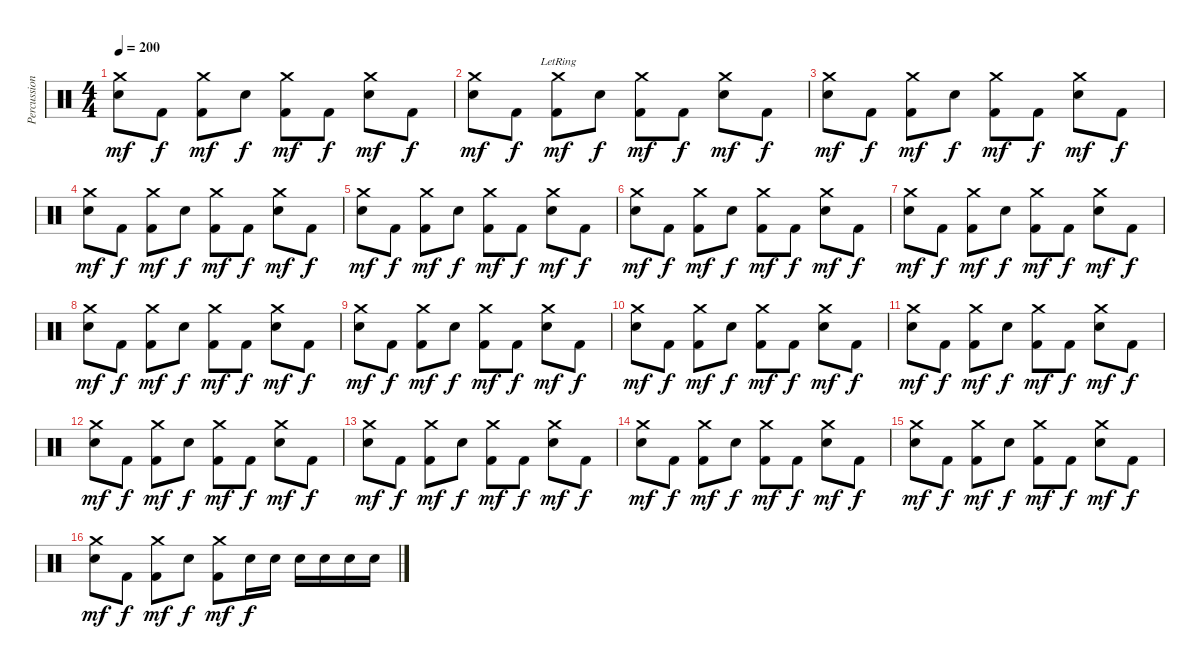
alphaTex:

\track ("Percussions" "Percussion") {instrument percussion}
\staff {score}
\articulation defaults
\ts (4 4)
\tempo 200
\clef neutral
\ks c
("Crash medium (hit)" "Snare (hit) 2").8{dy mf} "Kick (hit) 2".8{dy f} ("Crash medium (hit)" "Kick (hit) 2").8{dy mf} "Snare (hit) 2".8{dy f} ("Crash medium (hit)" "Kick (hit) 2").8{dy mf} "Kick (hit) 2".8{dy f} ("Crash medium (hit)" "Snare (hit) 2").8{dy mf} "Kick (hit) 2".8{dy f} |
("Crash medium (hit)" "Snare (hit) 2").8{dy mf} "Kick (hit) 2".8{dy f} ("Crash medium (hit)"{lr} "Kick (hit) 2").8{dy mf} "Snare (hit) 2".8{dy f} ("Crash medium (hit)" "Kick (hit) 2").8{dy mf} "Kick (hit) 2".8{dy f} ("Crash medium (hit)" "Snare (hit) 2").8{dy mf} "Kick (hit) 2".8{dy f} |
("Crash medium (hit)" "Snare (hit) 2").8{dy mf} "Kick (hit) 2".8{dy f} ("Crash medium (hit)" "Kick (hit) 2").8{dy mf} "Snare (hit) 2".8{dy f} ("Crash medium (hit)" "Kick (hit) 2").8{dy mf} "Kick (hit) 2".8{dy f} ("Crash medium (hit)" "Snare (hit) 2").8{dy mf} "Kick (hit) 2".8{dy f} |
("Crash medium (hit)" "Snare (hit) 2").8{dy mf} "Kick (hit) 2".8{dy f} ("Crash medium (hit)" "Kick (hit) 2").8{dy mf} "Snare (hit) 2".8{dy f} ("Crash medium (hit)" "Kick (hit) 2").8{dy mf} "Kick (hit) 2".8{dy f} ("Crash medium (hit)" "Snare (hit) 2").8{dy mf} "Kick (hit) 2".8{dy f} |
("Crash medium (hit)" "Snare (hit) 2").8{dy mf} "Kick (hit) 2".8{dy f} ("Crash medium (hit)" "Kick (hit) 2").8{dy mf} "Snare (hit) 2".8{dy f} ("Crash medium (hit)" "Kick (hit) 2").8{dy mf} "Kick (hit) 2".8{dy f} ("Crash medium (hit)" "Snare (hit) 2").8{dy mf} "Kick (hit) 2".8{dy f} |
("Crash medium (hit)" "Snare (hit) 2").8{dy mf} "Kick (hit) 2".8{dy f} ("Crash medium (hit)" "Kick (hit) 2").8{dy mf} "Snare (hit) 2".8{dy f} ("Crash medium (hit)" "Kick (hit) 2").8{dy mf} "Kick (hit) 2".8{dy f} ("Crash medium (hit)" "Snare (hit) 2").8{dy mf} "Kick (hit) 2".8{dy f} |
("Crash medium (hit)" "Snare (hit) 2").8{dy mf} "Kick (hit) 2".8{dy f} ("Crash medium (hit)" "Kick (hit) 2").8{dy mf} "Snare (hit) 2".8{dy f} ("Crash medium (hit)" "Kick (hit) 2").8{dy mf} "Kick (hit) 2".8{dy f} ("Crash medium (hit)" "Snare (hit) 2").8{dy mf} "Kick (hit) 2".8{dy f} |
("Crash medium (hit)" "Snare (hit) 2").8{dy mf} "Kick (hit) 2".8{dy f} ("Crash medium (hit)" "Kick (hit) 2").8{dy mf} "Snare (hit) 2".8{dy f} ("Crash medium (hit)" "Kick (hit) 2").8{dy mf} "Kick (hit) 2".8{dy f} ("Crash medium (hit)" "Snare (hit) 2").8{dy mf} "Kick (hit) 2".8{dy f} |
("Crash medium (hit)" "Snare (hit) 2").8{dy mf} "Kick (hit) 2".8{dy f} ("Crash medium (hit)" "Kick (hit) 2").8{dy mf} "Snare (hit) 2".8{dy f} ("Crash medium (hit)" "Kick (hit) 2").8{dy mf} "Kick (hit) 2".8{dy f} ("Crash medium (hit)" "Snare (hit) 2").8{dy mf} "Kick (hit) 2".8{dy f} |
("Crash medium (hit)" "Snare (hit) 2").8{dy mf} "Kick (hit) 2".8{dy f} ("Crash medium (hit)" "Kick (hit) 2").8{dy mf} "Snare (hit) 2".8{dy f} ("Crash medium (hit)" "Kick (hit) 2").8{dy mf} "Kick (hit) 2".8{dy f} ("Crash medium (hit)" "Snare (hit) 2").8{dy mf} "Kick (hit) 2".8{dy f} |
("Crash medium (hit)" "Snare (hit) 2").8{dy mf} "Kick (hit) 2".8{dy f} ("Crash medium (hit)" "Kick (hit) 2").8{dy mf} "Snare (hit) 2".8{dy f} ("Crash medium (hit)" "Kick (hit) 2").8{dy mf} "Kick (hit) 2".8{dy f} ("Crash medium (hit)" "Snare (hit) 2").8{dy mf} "Kick (hit) 2".8{dy f} |
("Crash medium (hit)" "Snare (hit) 2").8{dy mf} "Kick (hit) 2".8{dy f} ("Crash medium (hit)" "Kick (hit) 2").8{dy mf} "Snare (hit) 2".8{dy f} ("Crash medium (hit)" "Kick (hit) 2").8{dy mf} "Kick (hit) 2".8{dy f} ("Crash medium (hit)" "Snare (hit) 2").8{dy mf} "Kick (hit) 2".8{dy f} |
("Crash medium (hit)" "Snare (hit) 2").8{dy mf} "Kick (hit) 2".8{dy f} ("Crash medium (hit)" "Kick (hit) 2").8{dy mf} "Snare (hit) 2".8{dy f} ("Crash medium (hit)" "Kick (hit) 2").8{dy mf} "Kick (hit) 2".8{dy f} ("Crash medium (hit)" "Snare (hit) 2").8{dy mf} "Kick (hit) 2".8{dy f} |
("Crash medium (hit)" "Snare (hit) 2").8{dy mf} "Kick (hit) 2".8{dy f} ("Crash medium (hit)" "Kick (hit) 2").8{dy mf} "Snare (hit) 2".8{dy f} ("Crash medium (hit)" "Kick (hit) 2").8{dy mf} "Kick (hit) 2".8{dy f} ("Crash medium (hit)" "Snare (hit) 2").8{dy mf} "Kick (hit) 2".8{dy f} |
("Crash medium (hit)" "Snare (hit) 2").8{dy mf} "Kick (hit) 2".8{dy f} ("Crash medium (hit)" "Kick (hit) 2").8{dy mf} "Snare (hit) 2".8{dy f} ("Crash medium (hit)" "Kick (hit) 2").8{dy mf} "Kick (hit) 2".8{dy f} ("Crash medium (hit)" "Snare (hit) 2").8{dy mf} "Kick (hit) 2".8{dy f} |
("Crash medium (hit)" "Snare (hit) 2").8{dy mf} "Kick (hit) 2".8{dy f} ("Crash medium (hit)" "Kick (hit) 2").8{dy mf} "Snare (hit) 2".8{dy f} ("Crash medium (hit)" "Kick (hit) 2").8{dy mf} "Snare (hit) 2".16{dy f} "Snare (hit) 2".16 "Snare (hit) 2".16 "Snare (hit) 2".16 "Snare (hit) 2".16 "Snare (hit) 2".16
